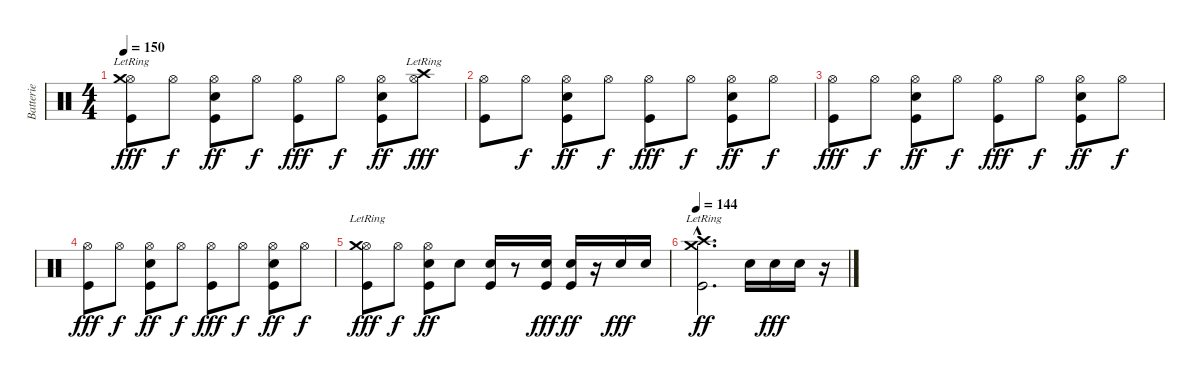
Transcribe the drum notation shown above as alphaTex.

\track ("Batterie" "Batterie") {instrument percussion}
\staff {score}
\articulation defaults
\ts (4 4)
\tempo 150
\clef neutral
\ks c
("Hi-Hat (open)" "Kick (hit)" "Crash medium (hit)"{lr}).8{dy fff} "Hi-Hat (open)".8{dy f} ("Hi-Hat (open)" "Kick (hit)" "Electric Snare (hit)").8{dy ff} "Hi-Hat (open)".8{dy f} ("Hi-Hat (open)" "Kick (hit)").8{dy fff} "Hi-Hat (open)".8{dy f} ("Hi-Hat (open)" "Kick (hit)" "Electric Snare (hit)").8{dy ff} ("Hi-Hat (open)" "Crash high (hit)"{lr}).8{dy fff} |
("Hi-Hat (open)" "Kick (hit)").8 "Hi-Hat (open)".8{dy f} ("Hi-Hat (open)" "Kick (hit)" "Electric Snare (hit)").8{dy ff} "Hi-Hat (open)".8{dy f} ("Hi-Hat (open)" "Kick (hit)").8{dy fff} "Hi-Hat (open)".8{dy f} ("Hi-Hat (open)" "Kick (hit)" "Electric Snare (hit)").8{dy ff} "Hi-Hat (open)".8{dy f} |
("Hi-Hat (open)" "Kick (hit)").8{dy fff} "Hi-Hat (open)".8{dy f} ("Hi-Hat (open)" "Kick (hit)" "Electric Snare (hit)").8{dy ff} "Hi-Hat (open)".8{dy f} ("Hi-Hat (open)" "Kick (hit)").8{dy fff} "Hi-Hat (open)".8{dy f} ("Hi-Hat (open)" "Kick (hit)" "Electric Snare (hit)").8{dy ff} "Hi-Hat (open)".8{dy f} |
("Hi-Hat (open)" "Kick (hit)").8{dy fff} "Hi-Hat (open)".8{dy f} ("Hi-Hat (open)" "Kick (hit)" "Electric Snare (hit)").8{dy ff} "Hi-Hat (open)".8{dy f} ("Hi-Hat (open)" "Kick (hit)").8{dy fff} "Hi-Hat (open)".8{dy f} ("Hi-Hat (open)" "Kick (hit)" "Electric Snare (hit)").8{dy ff} "Hi-Hat (open)".8{dy f} |
("Hi-Hat (open)" "Kick (hit)" "Crash medium (hit)"{lr}).8{dy fff} "Hi-Hat (open)".8{dy f} ("Hi-Hat (open)" "Kick (hit)" "Electric Snare (hit)").8{dy ff} "Electric Snare (hit)".8 ("Kick (hit)" "Electric Snare (hit)").16 r.8 ("Kick (hit)" "Electric Snare (hit)").16{dy fff} ("Electric Snare (hit)" "Kick (hit)").16{dy ff} r.16 "Electric Snare (hit)".16{dy fff} "Electric Snare (hit)".16 |
\tempo 144
("Crash high (hit)"{hac lr} "Crash medium (hit)"{hac lr} "Kick (hit)"{hac}).2{d dy ff} "Electric Snare (hit)".16 "Electric Snare (hit)".16{dy fff} "Electric Snare (hit)".16 r.16
